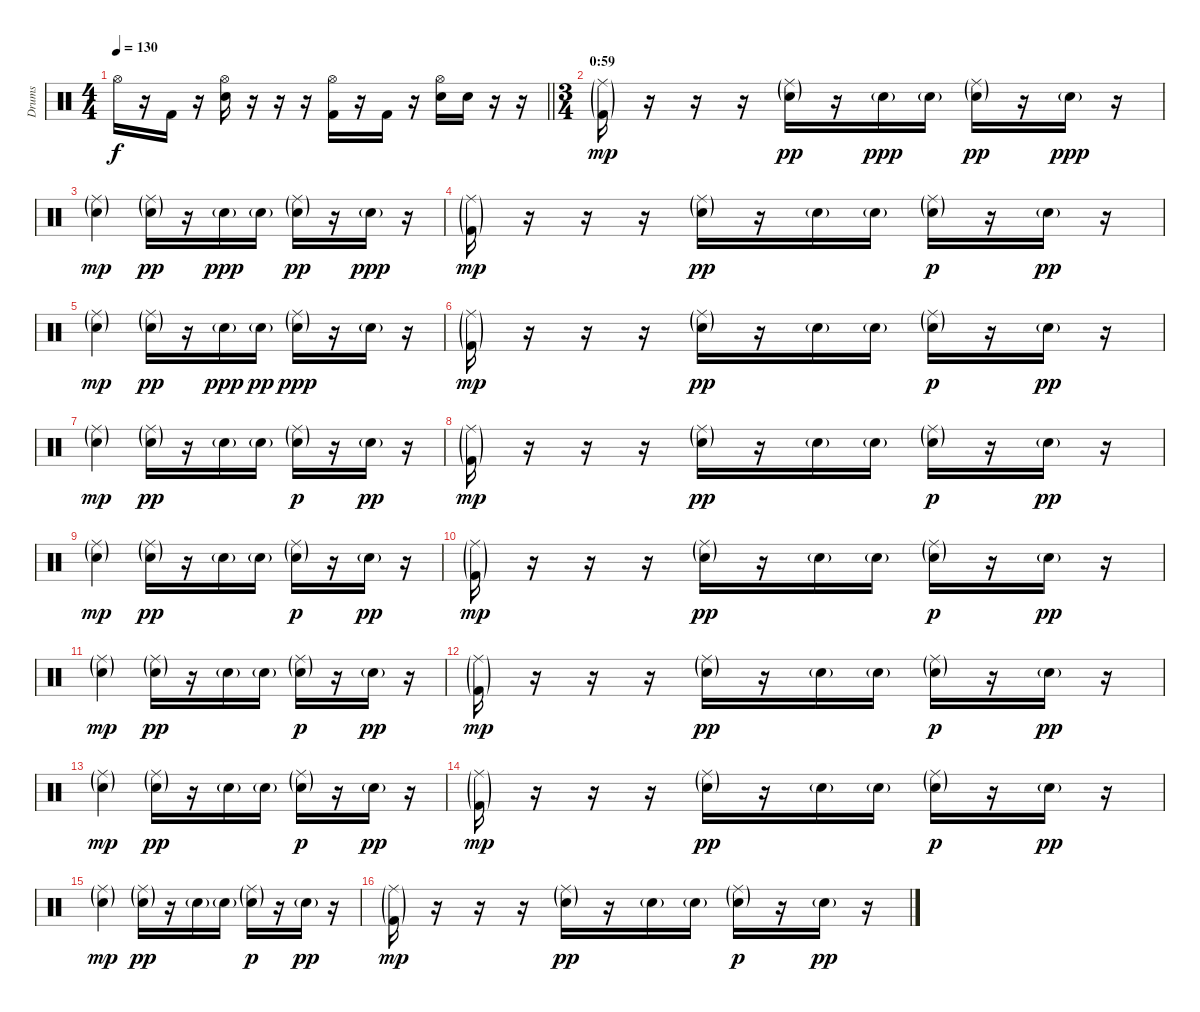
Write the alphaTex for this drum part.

\track ("Drums" "Drums") {instrument percussion}
\staff {score}
\articulation defaults
\ts (4 4)
\tempo 130
\clef neutral
\barLineRight lightlight
\ks c "Hi-Hat (open)".16{dy f}
r.16 "Kick (hit) 2".16 r.16 ("Hi-Hat (open)" "Electric Snare (hit)").16 r.16 r.16 r.16 ("Hi-Hat (open)" "Kick (hit) 2").16 r.16 "Kick (hit) 2".16 r.16 ("Hi-Hat (open)" "Electric Snare (hit)").16 "Electric Snare (hit)".16 r.16 r.16 |
\ts (3 4)
\section ("" "0:59")
("Ride (middle)"{g} "Kick (hit) 2"{g}).16{dy mp} r.16 r.16 r.16 ("Ride (middle)"{g} "Electric Snare (hit)"{g}).16{dy pp} r.16 "Electric Snare (hit)"{g}.16{dy ppp} "Electric Snare (hit)"{g}.16 ("Ride (middle)"{g} "Electric Snare (hit)"{g}).16{dy pp} r.16 "Electric Snare (hit)"{g}.16{dy ppp} r.16 |
("Ride (middle)"{g} "Electric Snare (hit)"{g}).4{dy mp} ("Ride (middle)"{g} "Electric Snare (hit)"{g}).16{dy pp} r.16 "Electric Snare (hit)"{g}.16{dy ppp} "Electric Snare (hit)"{g}.16 ("Ride (middle)"{g} "Electric Snare (hit)"{g}).16{dy pp} r.16 "Electric Snare (hit)"{g}.16{dy ppp} r.16 |
("Ride (middle)"{g} "Kick (hit) 2"{g}).16{dy mp} r.16 r.16 r.16 ("Ride (middle)"{g} "Electric Snare (hit)"{g}).16{dy pp} r.16 "Electric Snare (hit)"{g}.16 "Electric Snare (hit)"{g}.16 ("Ride (middle)"{g} "Electric Snare (hit)"{g}).16{dy p} r.16 "Electric Snare (hit)"{g}.16{dy pp} r.16 |
("Ride (middle)"{g} "Electric Snare (hit)"{g}).4{dy mp} ("Ride (middle)"{g} "Electric Snare (hit)"{g}).16{dy pp} r.16 "Electric Snare (hit)"{g}.16{dy ppp} "Electric Snare (hit)"{g}.16{dy pp} ("Ride (middle)"{g} "Electric Snare (hit)"{g}).16{dy ppp} r.16 "Electric Snare (hit)"{g}.16 r.16 |
("Ride (middle)"{g} "Kick (hit) 2"{g}).16{dy mp} r.16 r.16 r.16 ("Ride (middle)"{g} "Electric Snare (hit)"{g}).16{dy pp} r.16 "Electric Snare (hit)"{g}.16 "Electric Snare (hit)"{g}.16 ("Ride (middle)"{g} "Electric Snare (hit)"{g}).16{dy p} r.16 "Electric Snare (hit)"{g}.16{dy pp} r.16 |
("Ride (middle)"{g} "Electric Snare (hit)"{g}).4{dy mp} ("Ride (middle)"{g} "Electric Snare (hit)"{g}).16{dy pp} r.16 "Electric Snare (hit)"{g}.16 "Electric Snare (hit)"{g}.16 ("Ride (middle)"{g} "Electric Snare (hit)"{g}).16{dy p} r.16 "Electric Snare (hit)"{g}.16{dy pp} r.16 |
("Ride (middle)"{g} "Kick (hit) 2"{g}).16{dy mp} r.16 r.16 r.16 ("Ride (middle)"{g} "Electric Snare (hit)"{g}).16{dy pp} r.16 "Electric Snare (hit)"{g}.16 "Electric Snare (hit)"{g}.16 ("Ride (middle)"{g} "Electric Snare (hit)"{g}).16{dy p} r.16 "Electric Snare (hit)"{g}.16{dy pp} r.16 |
("Ride (middle)"{g} "Electric Snare (hit)"{g}).4{dy mp} ("Ride (middle)"{g} "Electric Snare (hit)"{g}).16{dy pp} r.16 "Electric Snare (hit)"{g}.16 "Electric Snare (hit)"{g}.16 ("Ride (middle)"{g} "Electric Snare (hit)"{g}).16{dy p} r.16 "Electric Snare (hit)"{g}.16{dy pp} r.16 |
("Ride (middle)"{g} "Kick (hit) 2"{g}).16{dy mp} r.16 r.16 r.16 ("Ride (middle)"{g} "Electric Snare (hit)"{g}).16{dy pp} r.16 "Electric Snare (hit)"{g}.16 "Electric Snare (hit)"{g}.16 ("Ride (middle)"{g} "Electric Snare (hit)"{g}).16{dy p} r.16 "Electric Snare (hit)"{g}.16{dy pp} r.16 |
("Ride (middle)"{g} "Electric Snare (hit)"{g}).4{dy mp} ("Ride (middle)"{g} "Electric Snare (hit)"{g}).16{dy pp} r.16 "Electric Snare (hit)"{g}.16 "Electric Snare (hit)"{g}.16 ("Ride (middle)"{g} "Electric Snare (hit)"{g}).16{dy p} r.16 "Electric Snare (hit)"{g}.16{dy pp} r.16 |
("Ride (middle)"{g} "Kick (hit) 2"{g}).16{dy mp} r.16 r.16 r.16 ("Ride (middle)"{g} "Electric Snare (hit)"{g}).16{dy pp} r.16 "Electric Snare (hit)"{g}.16 "Electric Snare (hit)"{g}.16 ("Ride (middle)"{g} "Electric Snare (hit)"{g}).16{dy p} r.16 "Electric Snare (hit)"{g}.16{dy pp} r.16 |
("Ride (middle)"{g} "Electric Snare (hit)"{g}).4{dy mp} ("Ride (middle)"{g} "Electric Snare (hit)"{g}).16{dy pp} r.16 "Electric Snare (hit)"{g}.16 "Electric Snare (hit)"{g}.16 ("Ride (middle)"{g} "Electric Snare (hit)"{g}).16{dy p} r.16 "Electric Snare (hit)"{g}.16{dy pp} r.16 |
("Ride (middle)"{g} "Kick (hit) 2"{g}).16{dy mp} r.16 r.16 r.16 ("Ride (middle)"{g} "Electric Snare (hit)"{g}).16{dy pp} r.16 "Electric Snare (hit)"{g}.16 "Electric Snare (hit)"{g}.16 ("Ride (middle)"{g} "Electric Snare (hit)"{g}).16{dy p} r.16 "Electric Snare (hit)"{g}.16{dy pp} r.16 |
("Ride (middle)"{g} "Electric Snare (hit)"{g}).4{dy mp} ("Ride (middle)"{g} "Electric Snare (hit)"{g}).16{dy pp} r.16 "Electric Snare (hit)"{g}.16 "Electric Snare (hit)"{g}.16 ("Ride (middle)"{g} "Electric Snare (hit)"{g}).16{dy p} r.16 "Electric Snare (hit)"{g}.16{dy pp} r.16 |
("Ride (middle)"{g} "Kick (hit) 2"{g}).16{dy mp} r.16 r.16 r.16 ("Ride (middle)"{g} "Electric Snare (hit)"{g}).16{dy pp} r.16 "Electric Snare (hit)"{g}.16 "Electric Snare (hit)"{g}.16 ("Ride (middle)"{g} "Electric Snare (hit)"{g}).16{dy p} r.16 "Electric Snare (hit)"{g}.16{dy pp} r.16
